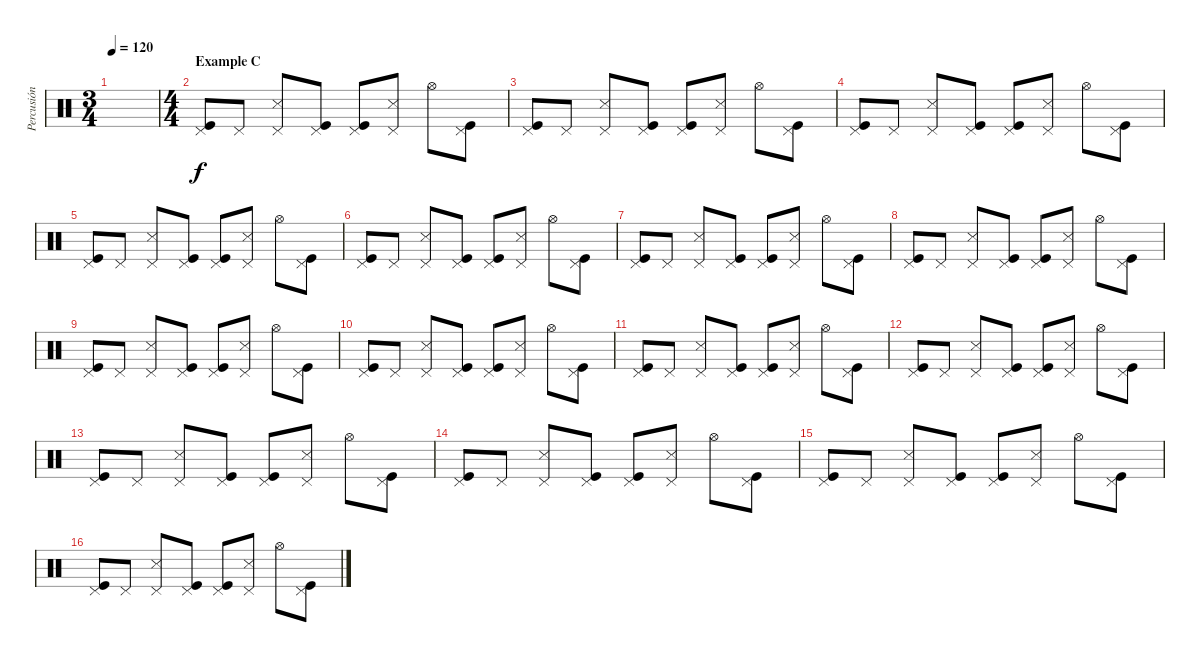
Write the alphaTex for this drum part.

\track ("Percusión" "Percusión") {instrument percussion}
\staff {score}
\articulation defaults
\ts (3 4)
\tempo 120
\clef neutral
\ks c
|
\ts (4 4)
\section ("" "Example C")
("Pedal Hi-Hat (hit)" "Kick (hit)").8 "Pedal Hi-Hat (hit)".8 ("Pedal Hi-Hat (hit)" "Snare (side stick) 3").8 ("Pedal Hi-Hat (hit)" "Kick (hit)").8 ("Pedal Hi-Hat (hit)" "Kick (hit)").8 ("Pedal Hi-Hat (hit)" "Snare (side stick) 3").8 "Hi-Hat (open)".8 ("Pedal Hi-Hat (hit)" "Kick (hit)").8 |
("Pedal Hi-Hat (hit)" "Kick (hit)").8 "Pedal Hi-Hat (hit)".8 ("Pedal Hi-Hat (hit)" "Snare (side stick) 3").8 ("Pedal Hi-Hat (hit)" "Kick (hit)").8 ("Pedal Hi-Hat (hit)" "Kick (hit)").8 ("Pedal Hi-Hat (hit)" "Snare (side stick) 3").8 "Hi-Hat (open)".8 ("Pedal Hi-Hat (hit)" "Kick (hit)").8 |
("Pedal Hi-Hat (hit)" "Kick (hit)").8 "Pedal Hi-Hat (hit)".8 ("Pedal Hi-Hat (hit)" "Snare (side stick) 3").8 ("Pedal Hi-Hat (hit)" "Kick (hit)").8 ("Pedal Hi-Hat (hit)" "Kick (hit)").8 ("Pedal Hi-Hat (hit)" "Snare (side stick) 3").8 "Hi-Hat (open)".8 ("Pedal Hi-Hat (hit)" "Kick (hit)").8 |
("Pedal Hi-Hat (hit)" "Kick (hit)").8 "Pedal Hi-Hat (hit)".8 ("Pedal Hi-Hat (hit)" "Snare (side stick) 3").8 ("Pedal Hi-Hat (hit)" "Kick (hit)").8 ("Pedal Hi-Hat (hit)" "Kick (hit)").8 ("Pedal Hi-Hat (hit)" "Snare (side stick) 3").8 "Hi-Hat (open)".8 ("Pedal Hi-Hat (hit)" "Kick (hit)").8 |
("Pedal Hi-Hat (hit)" "Kick (hit)").8 "Pedal Hi-Hat (hit)".8 ("Pedal Hi-Hat (hit)" "Snare (side stick) 3").8 ("Pedal Hi-Hat (hit)" "Kick (hit)").8 ("Pedal Hi-Hat (hit)" "Kick (hit)").8 ("Pedal Hi-Hat (hit)" "Snare (side stick) 3").8 "Hi-Hat (open)".8 ("Pedal Hi-Hat (hit)" "Kick (hit)").8 |
("Pedal Hi-Hat (hit)" "Kick (hit)").8 "Pedal Hi-Hat (hit)".8 ("Pedal Hi-Hat (hit)" "Snare (side stick) 3").8 ("Pedal Hi-Hat (hit)" "Kick (hit)").8 ("Pedal Hi-Hat (hit)" "Kick (hit)").8 ("Pedal Hi-Hat (hit)" "Snare (side stick) 3").8 "Hi-Hat (open)".8 ("Pedal Hi-Hat (hit)" "Kick (hit)").8 |
("Pedal Hi-Hat (hit)" "Kick (hit)").8 "Pedal Hi-Hat (hit)".8 ("Pedal Hi-Hat (hit)" "Snare (side stick) 3").8 ("Pedal Hi-Hat (hit)" "Kick (hit)").8 ("Pedal Hi-Hat (hit)" "Kick (hit)").8 ("Pedal Hi-Hat (hit)" "Snare (side stick) 3").8 "Hi-Hat (open)".8 ("Pedal Hi-Hat (hit)" "Kick (hit)").8 |
("Pedal Hi-Hat (hit)" "Kick (hit)").8 "Pedal Hi-Hat (hit)".8 ("Pedal Hi-Hat (hit)" "Snare (side stick) 3").8 ("Pedal Hi-Hat (hit)" "Kick (hit)").8 ("Pedal Hi-Hat (hit)" "Kick (hit)").8 ("Pedal Hi-Hat (hit)" "Snare (side stick) 3").8 "Hi-Hat (open)".8 ("Pedal Hi-Hat (hit)" "Kick (hit)").8 |
("Pedal Hi-Hat (hit)" "Kick (hit)").8 "Pedal Hi-Hat (hit)".8 ("Pedal Hi-Hat (hit)" "Snare (side stick) 3").8 ("Pedal Hi-Hat (hit)" "Kick (hit)").8 ("Pedal Hi-Hat (hit)" "Kick (hit)").8 ("Pedal Hi-Hat (hit)" "Snare (side stick) 3").8 "Hi-Hat (open)".8 ("Pedal Hi-Hat (hit)" "Kick (hit)").8 |
("Pedal Hi-Hat (hit)" "Kick (hit)").8 "Pedal Hi-Hat (hit)".8 ("Pedal Hi-Hat (hit)" "Snare (side stick) 3").8 ("Pedal Hi-Hat (hit)" "Kick (hit)").8 ("Pedal Hi-Hat (hit)" "Kick (hit)").8 ("Pedal Hi-Hat (hit)" "Snare (side stick) 3").8 "Hi-Hat (open)".8 ("Pedal Hi-Hat (hit)" "Kick (hit)").8 |
("Pedal Hi-Hat (hit)" "Kick (hit)").8 "Pedal Hi-Hat (hit)".8 ("Pedal Hi-Hat (hit)" "Snare (side stick) 3").8 ("Pedal Hi-Hat (hit)" "Kick (hit)").8 ("Pedal Hi-Hat (hit)" "Kick (hit)").8 ("Pedal Hi-Hat (hit)" "Snare (side stick) 3").8 "Hi-Hat (open)".8 ("Pedal Hi-Hat (hit)" "Kick (hit)").8 |
("Pedal Hi-Hat (hit)" "Kick (hit)").8 "Pedal Hi-Hat (hit)".8 ("Pedal Hi-Hat (hit)" "Snare (side stick) 3").8 ("Pedal Hi-Hat (hit)" "Kick (hit)").8 ("Pedal Hi-Hat (hit)" "Kick (hit)").8 ("Pedal Hi-Hat (hit)" "Snare (side stick) 3").8 "Hi-Hat (open)".8 ("Pedal Hi-Hat (hit)" "Kick (hit)").8 |
("Pedal Hi-Hat (hit)" "Kick (hit)").8 "Pedal Hi-Hat (hit)".8 ("Pedal Hi-Hat (hit)" "Snare (side stick) 3").8 ("Pedal Hi-Hat (hit)" "Kick (hit)").8 ("Pedal Hi-Hat (hit)" "Kick (hit)").8 ("Pedal Hi-Hat (hit)" "Snare (side stick) 3").8 "Hi-Hat (open)".8 ("Pedal Hi-Hat (hit)" "Kick (hit)").8 |
("Pedal Hi-Hat (hit)" "Kick (hit)").8 "Pedal Hi-Hat (hit)".8 ("Pedal Hi-Hat (hit)" "Snare (side stick) 3").8 ("Pedal Hi-Hat (hit)" "Kick (hit)").8 ("Pedal Hi-Hat (hit)" "Kick (hit)").8 ("Pedal Hi-Hat (hit)" "Snare (side stick) 3").8 "Hi-Hat (open)".8 ("Pedal Hi-Hat (hit)" "Kick (hit)").8 |
("Pedal Hi-Hat (hit)" "Kick (hit)").8 "Pedal Hi-Hat (hit)".8 ("Pedal Hi-Hat (hit)" "Snare (side stick) 3").8 ("Pedal Hi-Hat (hit)" "Kick (hit)").8 ("Pedal Hi-Hat (hit)" "Kick (hit)").8 ("Pedal Hi-Hat (hit)" "Snare (side stick) 3").8 "Hi-Hat (open)".8 ("Pedal Hi-Hat (hit)" "Kick (hit)").8
